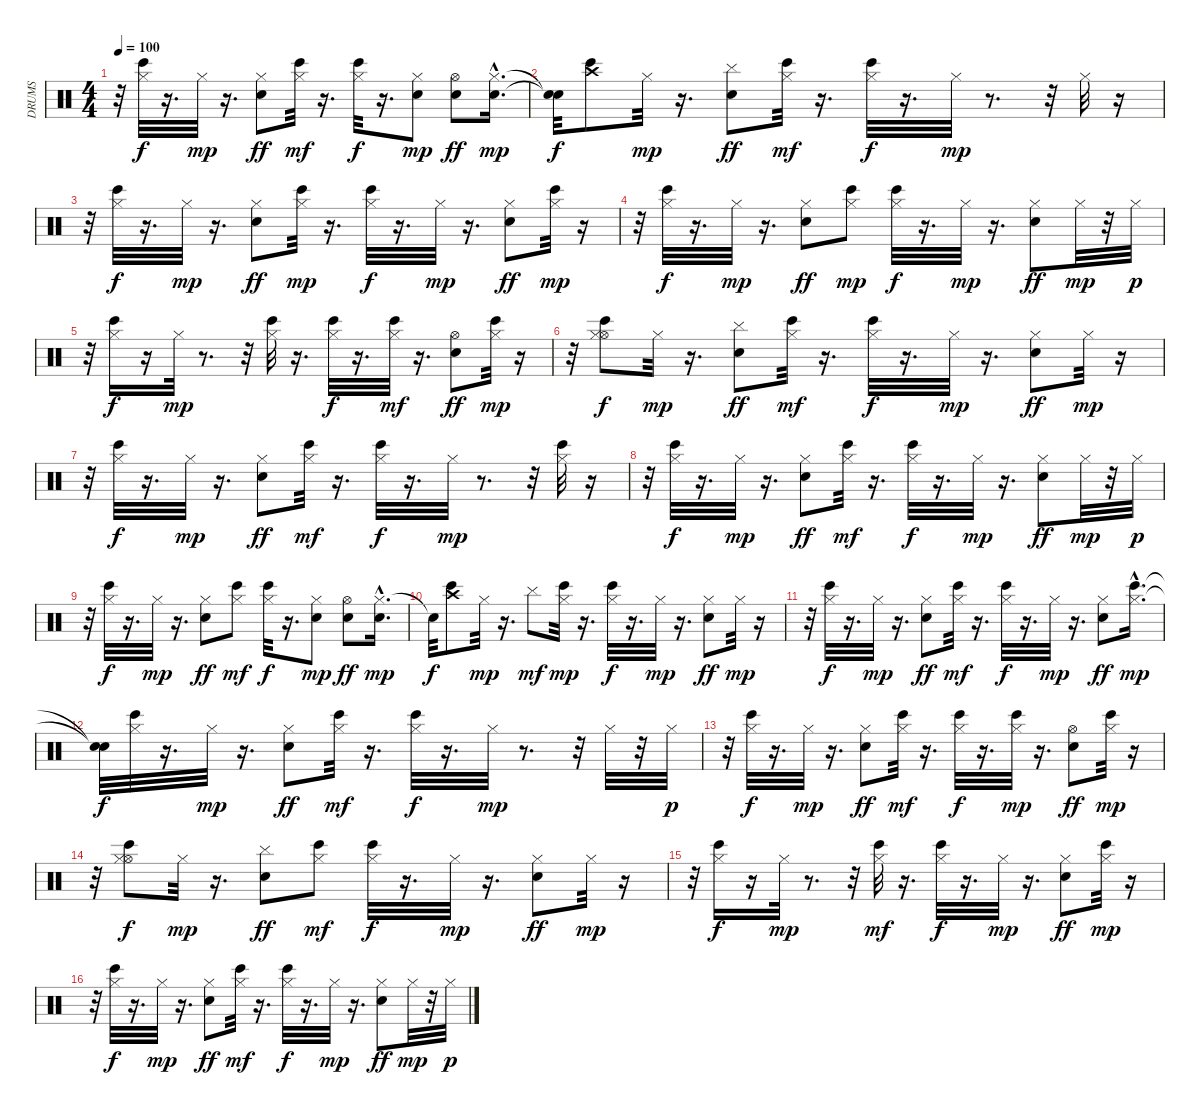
\track ("DRUMS" "DRUMS") {instrument percussion}
\staff {score}
\articulation defaults
\ts (4 4)
\tempo 100
\clef neutral
\ks c
r.32{dy p} ("Hi-Hat (closed)" "Bongo High (hit)").32{dy f} r.16{d} "Hi-Hat (closed)".32{dy mp} r.16{d} ("Hi-Hat (closed)" "Electric Snare (hit)").8{dy ff} ("Hi-Hat (closed)" "Bongo High (hit)").32{dy mf} r.16{d} ("Hi-Hat (closed)" "Bongo High (hit)").32{dy f} r.16{d} ("Hi-Hat (closed)" "Electric Snare (hit)").8{dy mp} ("Hi-Hat (open)" "Electric Snare (hit)").8{dy ff} ("Hi-Hat (closed)"{hac} "Electric Snare (hit)"{hac}).16{d dy mp} |
("Snare (hit)"{t} "Snare (hit)"{t}).32{dy f} ("Crash high (hit)" "Bongo High (hit)").8 "Hi-Hat (closed)".32{dy mp} r.16{d} ("Cymbal (hit)" "Electric Snare (hit)").8{dy ff} ("Hi-Hat (closed)" "Bongo High (hit)").32{dy mf} r.16{d} ("Hi-Hat (closed)" "Bongo High (hit)").32{dy f} r.16{d} "Hi-Hat (closed)".32{dy mp} r.8{d} r.32 "Hi-Hat (closed)".32 r.16 |
r.32 ("Hi-Hat (closed)" "Bongo High (hit)").32{dy f} r.16{d} "Hi-Hat (closed)".32{dy mp} r.16{d} ("Hi-Hat (closed)" "Electric Snare (hit)").8{dy ff} ("Bongo High (hit)" "Hi-Hat (closed)").32{dy mp} r.16{d} ("Hi-Hat (closed)" "Bongo High (hit)").32{dy f} r.16{d} "Hi-Hat (closed)".32{dy mp} r.16{d} ("Hi-Hat (closed)" "Electric Snare (hit)").8{dy ff} ("Hi-Hat (closed)" "Bongo High (hit)").32{dy mp} r.16 |
r.32 ("Hi-Hat (closed)" "Bongo High (hit)").32{dy f} r.16{d} "Hi-Hat (closed)".32{dy mp} r.16{d} ("Hi-Hat (closed)" "Electric Snare (hit)").8{dy ff} ("Bongo High (hit)" "Hi-Hat (closed)").8{dy mp} ("Hi-Hat (closed)" "Bongo High (hit)").32{dy f} r.16{d} "Hi-Hat (closed)".32{dy mp} r.16{d} ("Hi-Hat (closed)" "Electric Snare (hit)").8{dy ff} "Hi-Hat (closed)".32{dy mp} r.32 "Hi-Hat (closed)".32{dy p} |
r.32 ("Hi-Hat (closed)" "Bongo High (hit)").16{dy f} r.16 "Hi-Hat (closed)".32{dy mp} r.8{d} r.32 ("Bongo High (hit)" "Hi-Hat (closed)").32 r.16{d} ("Hi-Hat (closed)" "Bongo High (hit)").32{dy f} r.16{d} ("Hi-Hat (closed)" "Bongo High (hit)").32{dy mf} r.16{d} ("Hi-Hat (open)" "Electric Snare (hit)").8{dy ff} ("Hi-Hat (closed)" "Bongo High (hit)").32{dy mp} r.16 |
r.32 ("Hi-Hat (open)" "Bongo High (hit)" "Hi-Hat (closed)").8{dy f} "Hi-Hat (closed)".32{dy mp} r.16{d} ("Cymbal (hit)" "Electric Snare (hit)").8{dy ff} ("Hi-Hat (closed)" "Bongo High (hit)").32{dy mf} r.16{d} ("Hi-Hat (closed)" "Bongo High (hit)").32{dy f} r.16{d} "Hi-Hat (closed)".32{dy mp} r.16{d} ("Hi-Hat (closed)" "Electric Snare (hit)").8{dy ff} "Hi-Hat (closed)".32{dy mp} r.16 |
r.32 ("Hi-Hat (closed)" "Bongo High (hit)").32{dy f} r.16{d} "Hi-Hat (closed)".32{dy mp} r.16{d} ("Electric Snare (hit)" "Hi-Hat (closed)").8{dy ff} ("Hi-Hat (closed)" "Bongo High (hit)").32{dy mf} r.16{d} ("Hi-Hat (closed)" "Bongo High (hit)").32{dy f} r.16{d} "Hi-Hat (closed)".32{dy mp} r.8{d} r.32 ("Bongo High (hit)" "Hi-Hat (closed)").32 r.16 |
r.32 ("Hi-Hat (closed)" "Bongo High (hit)").32{dy f} r.16{d} "Hi-Hat (closed)".32{dy mp} r.16{d} ("Hi-Hat (closed)" "Electric Snare (hit)").8{dy ff} ("Hi-Hat (closed)" "Bongo High (hit)").32{dy mf} r.16{d} ("Hi-Hat (closed)" "Bongo High (hit)").32{dy f} r.16{d} "Hi-Hat (closed)".32{dy mp} r.16{d} ("Hi-Hat (closed)" "Electric Snare (hit)").8{dy ff} "Hi-Hat (closed)".32{dy mp} r.32 "Hi-Hat (closed)".32{dy p} |
r.32 ("Hi-Hat (closed)" "Bongo High (hit)").32{dy f} r.16{d} "Hi-Hat (closed)".32{dy mp} r.16{d} ("Hi-Hat (closed)" "Electric Snare (hit)").8{dy ff} ("Hi-Hat (closed)" "Bongo High (hit)").8{dy mf} ("Hi-Hat (closed)" "Bongo High (hit)").32{dy f} r.16{d} ("Hi-Hat (closed)" "Electric Snare (hit)").8{dy mp} ("Electric Snare (hit)" "Hi-Hat (open)").8{dy ff} ("Hi-Hat (closed)" "Electric Snare (hit)"{hac}).16{d dy mp} |
"Snare (hit)"{t}.32{dy f} ("Crash high (hit)" "Bongo High (hit)").8 "Hi-Hat (closed)".32{dy mp} r.16{d} "Cymbal (hit)".8{dy mf} ("Bongo High (hit)" "Hi-Hat (closed)").32{dy mp} r.16{d} ("Bongo High (hit)" "Hi-Hat (closed)").32{dy f} r.16{d} "Hi-Hat (closed)".32{dy mp} r.16{d} ("Hi-Hat (closed)" "Electric Snare (hit)").8{dy ff} "Hi-Hat (closed)".32{dy mp} r.16 |
r.32 ("Hi-Hat (closed)" "Bongo High (hit)").32{dy f} r.16{d} "Hi-Hat (closed)".32{dy mp} r.16{d} ("Hi-Hat (closed)" "Electric Snare (hit)").8{dy ff} ("Hi-Hat (closed)" "Bongo High (hit)").32{dy mf} r.16{d} ("Hi-Hat (closed)" "Bongo High (hit)").32{dy f} r.16{d} "Hi-Hat (closed)".32{dy mp} r.16{d} ("Hi-Hat (closed)" "Electric Snare (hit)").8{dy ff} ("Hi-Hat (closed)"{hac} "Bongo High (hit)"{hac}).16{d dy mp} |
("Snare (hit)"{t} "Snare (hit)"{t}).32{dy f} ("Hi-Hat (closed)" "Bongo High (hit)").32 r.16{d} "Hi-Hat (closed)".32{dy mp} r.16{d} ("Hi-Hat (closed)" "Electric Snare (hit)").8{dy ff} ("Hi-Hat (closed)" "Bongo High (hit)").32{dy mf} r.16{d} ("Hi-Hat (closed)" "Bongo High (hit)").32{dy f} r.16{d} "Hi-Hat (closed)".32{dy mp} r.8{d} r.32 "Hi-Hat (closed)".32 r.32 "Hi-Hat (closed)".32{dy p} |
r.32 ("Hi-Hat (closed)" "Bongo High (hit)").32{dy f} r.16{d} "Hi-Hat (closed)".32{dy mp} r.16{d} ("Hi-Hat (closed)" "Electric Snare (hit)").8{dy ff} ("Hi-Hat (closed)" "Bongo High (hit)").32{dy mf} r.16{d} ("Hi-Hat (closed)" "Bongo High (hit)").32{dy f} r.16{d} ("Bongo High (hit)" "Hi-Hat (closed)").32{dy mp} r.16{d} ("Hi-Hat (open)" "Electric Snare (hit)").8{dy ff} ("Hi-Hat (closed)" "Bongo High (hit)").32{dy mp} r.16 |
r.32 ("Hi-Hat (open)" "Bongo High (hit)" "Hi-Hat (closed)").8{dy f} "Hi-Hat (closed)".32{dy mp} r.16{d} ("Cymbal (hit)" "Electric Snare (hit)").8{dy ff} ("Hi-Hat (closed)" "Bongo High (hit)").8{dy mf} ("Hi-Hat (closed)" "Bongo High (hit)").32{dy f} r.16{d} "Hi-Hat (closed)".32{dy mp} r.16{d} ("Electric Snare (hit)" "Hi-Hat (closed)").8{dy ff} "Hi-Hat (closed)".32{dy mp} r.16 |
r.32 ("Hi-Hat (closed)" "Bongo High (hit)").16{dy f} r.16 "Hi-Hat (closed)".32{dy mp} r.8{d} r.32 ("Hi-Hat (closed)" "Bongo High (hit)").32{dy mf} r.16{d} ("Hi-Hat (closed)" "Bongo High (hit)").32{dy f} r.16{d} "Hi-Hat (closed)".32{dy mp} r.16{d} ("Hi-Hat (closed)" "Electric Snare (hit)").8{dy ff} ("Hi-Hat (closed)" "Bongo High (hit)").32{dy mp} r.16 |
r.32 ("Hi-Hat (closed)" "Bongo High (hit)").32{dy f} r.16{d} "Hi-Hat (closed)".32{dy mp} r.16{d} ("Hi-Hat (closed)" "Electric Snare (hit)").8{dy ff} ("Hi-Hat (closed)" "Bongo High (hit)").32{dy mf} r.16{d} ("Hi-Hat (closed)" "Bongo High (hit)").32{dy f} r.16{d} "Hi-Hat (closed)".32{dy mp} r.16{d} ("Hi-Hat (closed)" "Electric Snare (hit)").8{dy ff} "Hi-Hat (closed)".32{dy mp} r.32 "Hi-Hat (closed)".32{dy p}
